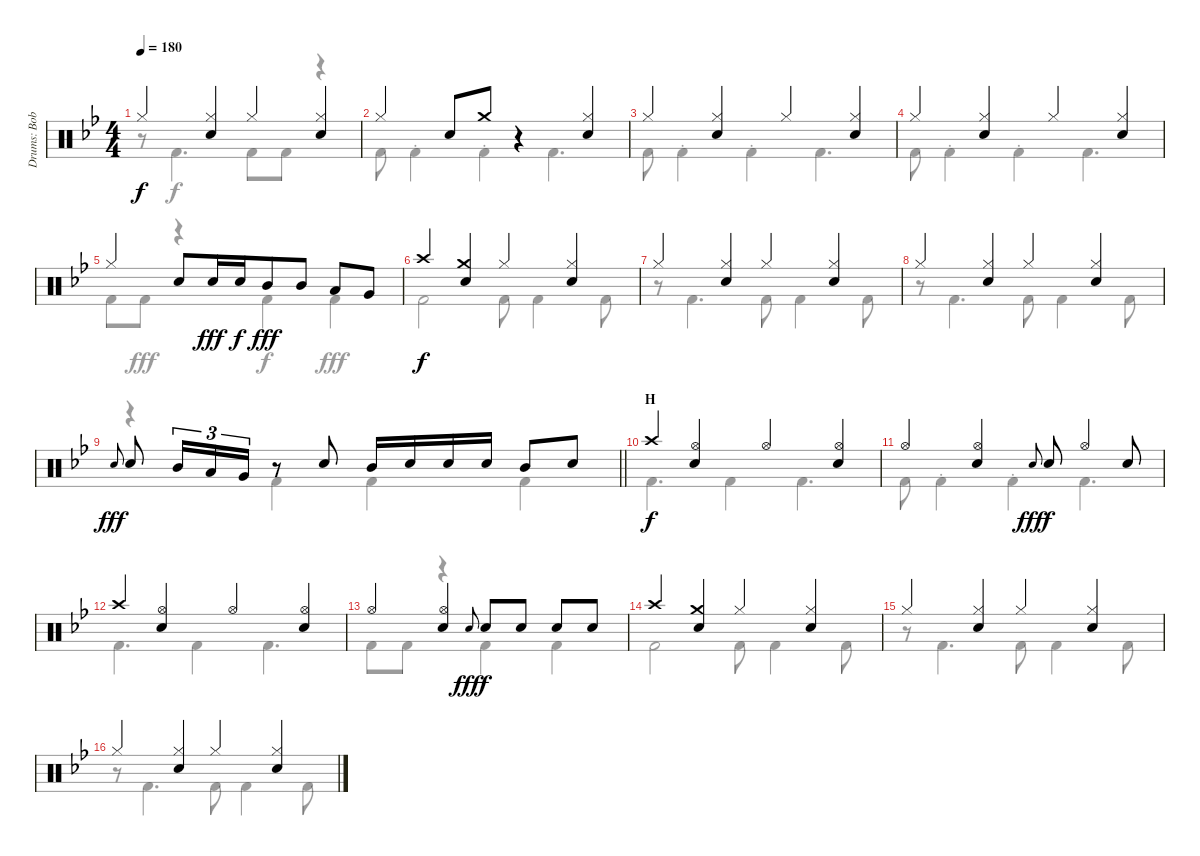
\track ("Drums: Bobby" "Drums: Bob") {instrument percussion}
\staff {score}
\articulation defaults
\voice
\ts (4 4)
\tempo 180
\clef neutral
\ks bb "Hi-Hat (closed)".4{dy f}
("Hi-Hat (closed)" "Snare (hit) 2").4 "Hi-Hat (closed)".4 ("Hi-Hat (closed)" "Snare (hit) 2").4 |
"Hi-Hat (closed)".4 "Snare (hit) 2".8 "Crash medium (hit)".8 r.4 ("Hi-Hat (closed)" "Snare (hit) 2").4 |
"Hi-Hat (closed)".4 ("Hi-Hat (closed)" "Snare (hit) 2").4 "Hi-Hat (closed)".4 ("Hi-Hat (closed)" "Snare (hit) 2").4 |
"Hi-Hat (closed)".4 ("Hi-Hat (closed)" "Snare (hit) 2").4 "Hi-Hat (closed)".4 ("Hi-Hat (closed)" "Snare (hit) 2").4 |
"Hi-Hat (closed)".4 "Snare (hit) 2".8 "Snare (hit) 2".16{dy fff} "Snare (hit) 2".16{dy f beam merge} "Mid Tom (hit)".8{dy fff} "Mid Tom (hit)".8 "Low Tom (hit)".8 "Very Low Tom (hit)".8 |
"Crash high (hit)".4{dy f} ("Crash medium (hit)" "Snare (hit) 2").4 "Hi-Hat (closed)".4 ("Hi-Hat (closed)" "Snare (hit) 2").4 |
"Hi-Hat (closed)".4 ("Hi-Hat (closed)" "Snare (hit) 2").4 "Hi-Hat (closed)".4 ("Hi-Hat (closed)" "Snare (hit) 2").4 |
"Hi-Hat (closed)".4 ("Hi-Hat (closed)" "Snare (hit) 2").4 "Hi-Hat (closed)".4 ("Hi-Hat (closed)" "Snare (hit) 2").4 |
\barLineRight lightlight "Electric Snare (hit)".8{gr onbeat dy fff} "Snare (hit) 2".8 "Mid Tom (hit)".16{tu (3 2)} "Low Tom (hit)".16{tu (3 2)} "Very Low Tom (hit)".16{tu (3 2)}
r.8 "Snare (hit) 2".8 "Mid Tom (hit)".16 "Snare (hit) 2".16 "Snare (hit) 2".16 "Snare (hit) 2".16 "Mid Tom (hit)".8 "Snare (hit) 2".8 |
\section ("" "H")
"Crash high (hit)".4{dy f} ("Hi-Hat (open)" "Snare (hit) 2").4 "Hi-Hat (open)".4 ("Hi-Hat (open)" "Snare (hit) 2").4 |
"Hi-Hat (open)".4 ("Hi-Hat (open)" "Snare (hit) 2").4 "Electric Snare (hit)".8{gr onbeat dy fff} "Snare (hit) 2".8{dy f} "Hi-Hat (open)".4 "Snare (hit) 2".8 |
"Crash high (hit)".4 ("Hi-Hat (open)" "Snare (hit) 2").4 "Hi-Hat (open)".4 ("Hi-Hat (open)" "Snare (hit) 2").4 |
"Hi-Hat (open)".4 ("Hi-Hat (open)" "Snare (hit) 2").4 "Electric Snare (hit)".8{gr onbeat dy fff} "Snare (hit) 2".8{dy f} "Snare (hit) 2".8 "Snare (hit) 2".8 "Snare (hit) 2".8 |
"Crash high (hit)".4 ("Crash medium (hit)" "Snare (hit) 2").4 "Hi-Hat (closed)".4 ("Hi-Hat (closed)" "Snare (hit) 2").4 |
"Hi-Hat (closed)".4 ("Hi-Hat (closed)" "Snare (hit) 2").4 "Hi-Hat (closed)".4 ("Hi-Hat (closed)" "Snare (hit) 2").4 |
"Hi-Hat (closed)".4 ("Hi-Hat (closed)" "Snare (hit) 2").4 "Hi-Hat (closed)".4 ("Hi-Hat (closed)" "Snare (hit) 2").4
\voice
\clef neutral
\ottava regular
\simile none
\ks bb
r.8{dy f} "Kick (hit) 2".4{d} "Kick (hit) 2".8 "Kick (hit) 2".8 r.4 |
"Kick (hit) 2".8 "Kick (hit) 2"{st}.4 "Kick (hit) 2"{st}.4 "Kick (hit) 2".4{d} |
"Kick (hit) 2".8 "Kick (hit) 2"{st}.4 "Kick (hit) 2"{st}.4 "Kick (hit) 2".4{d} |
"Kick (hit) 2".8 "Kick (hit) 2"{st}.4 "Kick (hit) 2"{st}.4 "Kick (hit) 2".4{d} |
"Kick (hit) 2".8 "Kick (hit) 2".8{dy fff} r.4 "Kick (hit) 2".4{dy f} "Kick (hit) 2".4{dy fff} |
"Kick (hit) 2".2{dy f} "Kick (hit) 2".8 "Kick (hit) 2".4 "Kick (hit) 2".8 |
r.8 "Kick (hit) 2".4{d} "Kick (hit) 2".8 "Kick (hit) 2".4 "Kick (hit) 2".8 |
r.8 "Kick (hit) 2".4{d} "Kick (hit) 2".8 "Kick (hit) 2".4 "Kick (hit) 2".8 |
\barLineRight lightlight
r.4 "Kick (hit) 2".4 "Kick (hit) 2".4 "Kick (hit) 2".4 |
"Kick (hit) 2".4{d} "Kick (hit) 2".4 "Kick (hit) 2".4{d} |
"Kick (hit) 2".8 "Kick (hit) 2"{st}.4 "Kick (hit) 2"{st}.4 "Kick (hit) 2".4{d} |
"Kick (hit) 2".4{d} "Kick (hit) 2".4 "Kick (hit) 2".4{d} |
"Kick (hit) 2".8 "Kick (hit) 2".8 r.4 "Kick (hit) 2".4 "Kick (hit) 2".4 |
"Kick (hit) 2".2 "Kick (hit) 2".8 "Kick (hit) 2".4 "Kick (hit) 2".8 |
r.8 "Kick (hit) 2".4{d} "Kick (hit) 2".8 "Kick (hit) 2".4 "Kick (hit) 2".8 |
r.8 "Kick (hit) 2".4{d} "Kick (hit) 2".8 "Kick (hit) 2".4 "Kick (hit) 2".8
